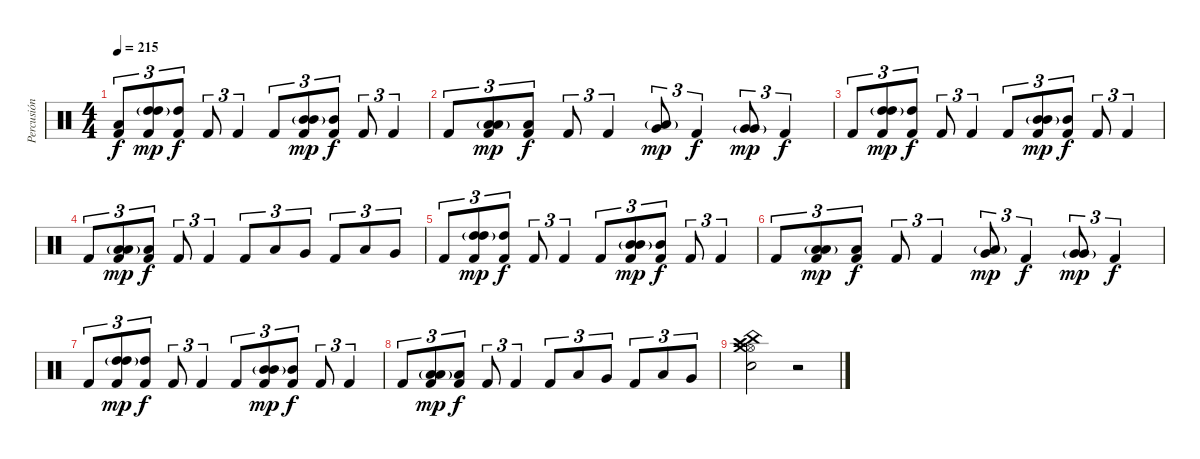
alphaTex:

\track ("Percusión" "Percusión") {instrument percussion}
\staff {score}
\articulation defaults
\ts (4 4)
\tempo 215
\clef neutral
\ks c
("Low Floor Tom (hit)" "Kick (hit) 2").8{tu (3 2) dy f} ("High Tom (hit)"{g} "High Tom (hit)" "Kick (hit) 2").8{tu (3 2) dy mp} ("High Tom (hit)" "Kick (hit) 2").8{tu (3 2) dy f} "Kick (hit) 2".8{tu (3 2)} "Kick (hit) 2".4{tu (3 2)} "Kick (hit) 2".8{tu (3 2)} ("Mid Tom (hit)"{g} "Mid Tom (hit)" "Kick (hit) 2").8{tu (3 2) dy mp} ("Mid Tom (hit)" "Kick (hit) 2").8{tu (3 2) dy f} "Kick (hit) 2".8{tu (3 2)} "Kick (hit) 2".4{tu (3 2)} |
"Kick (hit) 2".8{tu (3 2)} ("Low Tom (hit)"{g} "Low Tom (hit)" "Kick (hit) 2").8{tu (3 2) dy mp} ("Low Tom (hit)" "Kick (hit) 2").8{tu (3 2) dy f} "Kick (hit) 2".8{tu (3 2)} "Kick (hit) 2".4{tu (3 2)} ("Very Low Tom (hit)" "Low Tom (hit)"{g}).8{tu (3 2) dy mp} "Kick (hit) 2".4{tu (3 2) dy f} ("Very Low Tom (hit)" "Very Low Tom (hit)"{g}).8{tu (3 2) dy mp} "Kick (hit) 2".4{tu (3 2) dy f} |
"Kick (hit) 2".8{tu (3 2)} ("High Tom (hit)"{g} "High Tom (hit)" "Kick (hit) 2").8{tu (3 2) dy mp} ("High Tom (hit)" "Kick (hit) 2").8{tu (3 2) dy f} "Kick (hit) 2".8{tu (3 2)} "Kick (hit) 2".4{tu (3 2)} "Kick (hit) 2".8{tu (3 2)} ("Mid Tom (hit)"{g} "Mid Tom (hit)" "Kick (hit) 2").8{tu (3 2) dy mp} ("Mid Tom (hit)" "Kick (hit) 2").8{tu (3 2) dy f} "Kick (hit) 2".8{tu (3 2)} "Kick (hit) 2".4{tu (3 2)} |
"Kick (hit) 2".8{tu (3 2)} ("Low Tom (hit)"{g} "Low Tom (hit)" "Kick (hit) 2").8{tu (3 2) dy mp} ("Low Tom (hit)" "Kick (hit) 2").8{tu (3 2) dy f} "Kick (hit) 2".8{tu (3 2)} "Kick (hit) 2".4{tu (3 2)} "Kick (hit) 2".8{tu (3 2)} "Low Tom (hit)".8{tu (3 2)} "Very Low Tom (hit)".8{tu (3 2)} "Kick (hit) 2".8{tu (3 2)} "Low Tom (hit)".8{tu (3 2)} "Very Low Tom (hit)".8{tu (3 2)} |
"Kick (hit) 2".8{tu (3 2)} ("High Tom (hit)"{g} "High Tom (hit)" "Kick (hit) 2").8{tu (3 2) dy mp} ("High Tom (hit)" "Kick (hit) 2").8{tu (3 2) dy f} "Kick (hit) 2".8{tu (3 2)} "Kick (hit) 2".4{tu (3 2)} "Kick (hit) 2".8{tu (3 2)} ("Mid Tom (hit)"{g} "Mid Tom (hit)" "Kick (hit) 2").8{tu (3 2) dy mp} ("Mid Tom (hit)" "Kick (hit) 2").8{tu (3 2) dy f} "Kick (hit) 2".8{tu (3 2)} "Kick (hit) 2".4{tu (3 2)} |
"Kick (hit) 2".8{tu (3 2)} ("Low Tom (hit)"{g} "Low Tom (hit)" "Kick (hit) 2").8{tu (3 2) dy mp} ("Low Tom (hit)" "Kick (hit) 2").8{tu (3 2) dy f} "Kick (hit) 2".8{tu (3 2)} "Kick (hit) 2".4{tu (3 2)} ("Very Low Tom (hit)" "Low Tom (hit)"{g}).8{tu (3 2) dy mp} "Kick (hit) 2".4{tu (3 2) dy f} ("Very Low Tom (hit)" "Very Low Tom (hit)"{g}).8{tu (3 2) dy mp} "Kick (hit) 2".4{tu (3 2) dy f} |
"Kick (hit) 2".8{tu (3 2)} ("High Tom (hit)"{g} "High Tom (hit)" "Kick (hit) 2").8{tu (3 2) dy mp} ("High Tom (hit)" "Kick (hit) 2").8{tu (3 2) dy f} "Kick (hit) 2".8{tu (3 2)} "Kick (hit) 2".4{tu (3 2)} "Kick (hit) 2".8{tu (3 2)} ("Mid Tom (hit)"{g} "Mid Tom (hit)" "Kick (hit) 2").8{tu (3 2) dy mp} ("Mid Tom (hit)" "Kick (hit) 2").8{tu (3 2) dy f} "Kick (hit) 2".8{tu (3 2)} "Kick (hit) 2".4{tu (3 2)} |
"Kick (hit) 2".8{tu (3 2)} ("Low Tom (hit)"{g} "Low Tom (hit)" "Kick (hit) 2").8{tu (3 2) dy mp} ("Low Tom (hit)" "Kick (hit) 2").8{tu (3 2) dy f} "Kick (hit) 2".8{tu (3 2)} "Kick (hit) 2".4{tu (3 2)} "Kick (hit) 2".8{tu (3 2)} "Low Tom (hit)".8{tu (3 2)} "Very Low Tom (hit)".8{tu (3 2)} "Kick (hit) 2".8{tu (3 2)} "Low Tom (hit)".8{tu (3 2)} "Very Low Tom (hit)".8{tu (3 2)} |
("China (hit)" "Hi-Hat (open)" "Crash high (hit)" "Crash medium (hit)" "Snare (hit) 2").2 r.2
